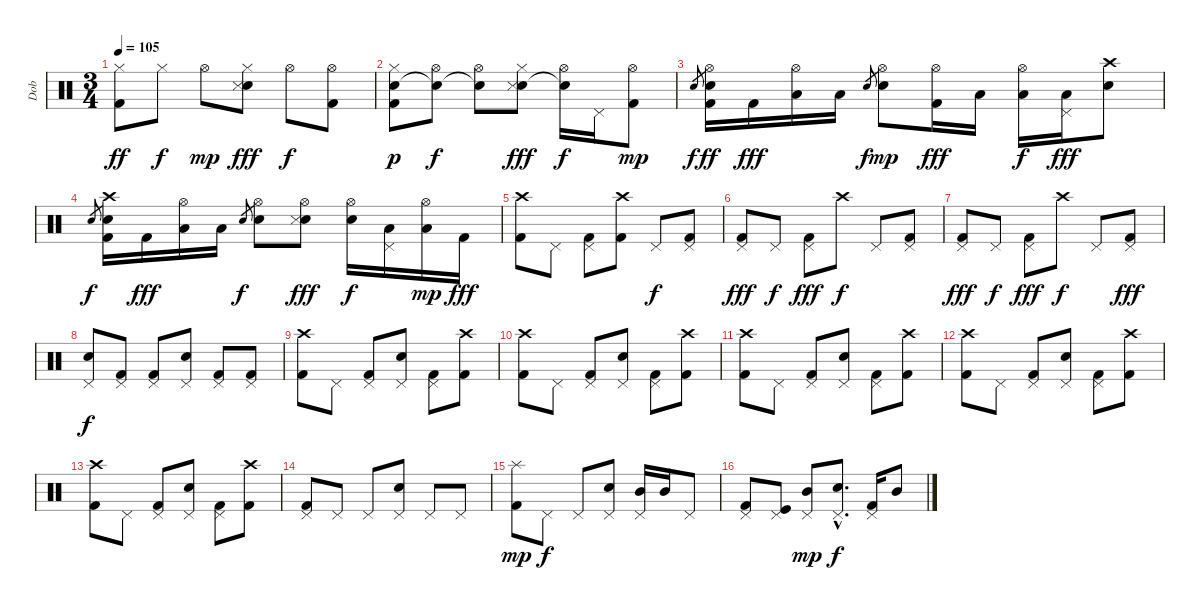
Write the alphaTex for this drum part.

\track ("Dob" "Dob") {instrument percussion}
\staff {score}
\articulation defaults
\ts (3 4)
\tempo 105
\clef neutral
\ks c
("Kick (hit) 2" "Hi-Hat (closed)").8{dy ff} "Hi-Hat (closed)".8{dy f} "Hi-Hat (open)".8{dy mp} ("Electric Snare (hit)" "Snare (side stick) 3" "Hi-Hat (closed)").8{dy fff} "Hi-Hat (open)".8{dy f} ("Kick (hit) 2" "Hi-Hat (open)").8 |
("Electric Snare (hit)"{tr (40 32)} "Kick (hit) 2" "Hi-Hat (closed)").8{dy p} ("Snare (hit)"{t} "Hi-Hat (open)").8{dy f} ("Snare (hit)"{t} "Hi-Hat (open)").8 ("Electric Snare (hit)" "Snare (side stick) 3" "Hi-Hat (closed)").8{dy fff} ("Snare (hit)"{t} "Hi-Hat (open)").16{dy f} "Pedal Hi-Hat (hit)".16 ("Kick (hit) 2" "Hi-Hat (open)").8{dy mp} |
"Electric Snare (hit)".8{gr dy f} ("Electric Snare (hit)" "Kick (hit) 2" "Hi-Hat (open)").16{dy ff} "Kick (hit) 2".16{dy fff} ("Low Tom (hit)" "Hi-Hat (open)").16 "Low Tom (hit)".16 "Electric Snare (hit)".8{gr dy f} ("Electric Snare (hit)" "Hi-Hat (open)").8{dy mp} ("Kick (hit) 2" "Hi-Hat (open)").16{dy fff} "Low Tom (hit)".16 ("Low Tom (hit)" "Hi-Hat (open)").16{dy f} ("Low Tom (hit)" "Pedal Hi-Hat (hit)").16{dy fff} ("Electric Snare (hit)" "Crash high (hit)").8 |
"Electric Snare (hit)".8{gr dy f} ("Electric Snare (hit)" "Kick (hit) 2" "Crash high (hit)").16 "Kick (hit) 2".16{dy fff} ("Low Tom (hit)" "Hi-Hat (open)").16 "Low Tom (hit)".16 "Electric Snare (hit)".8{gr dy f} ("Electric Snare (hit)" "Hi-Hat (open)").8 ("Electric Snare (hit)" "Snare (side stick) 3" "Hi-Hat (open)").8{dy fff} ("Electric Snare (hit)" "Hi-Hat (open)").16{dy f} ("Low Tom (hit)" "Pedal Hi-Hat (hit)").16 ("Low Tom (hit)" "Hi-Hat (open)").16{dy mp} "Kick (hit) 2".16{dy fff} |
("Kick (hit) 2" "Crash high (hit)").8 "Pedal Hi-Hat (hit)".8 ("Kick (hit) 2" "Pedal Hi-Hat (hit)").8 ("Kick (hit) 2" "Crash high (hit)").8 "Pedal Hi-Hat (hit)".8{dy f} ("Kick (hit) 2" "Pedal Hi-Hat (hit)").8 |
("Kick (hit) 2" "Pedal Hi-Hat (hit)").8{dy fff} "Pedal Hi-Hat (hit)".8{dy f} ("Kick (hit) 2" "Pedal Hi-Hat (hit)").8{dy fff} "Crash high (hit)".8{dy f} "Pedal Hi-Hat (hit)".8 ("Kick (hit) 2" "Pedal Hi-Hat (hit)").8 |
("Kick (hit) 2" "Pedal Hi-Hat (hit)").8{dy fff} "Pedal Hi-Hat (hit)".8{dy f} ("Kick (hit) 2" "Pedal Hi-Hat (hit)").8{dy fff} "Crash high (hit)".8{dy f} "Pedal Hi-Hat (hit)".8 ("Kick (hit) 2" "Pedal Hi-Hat (hit)").8{dy fff} |
("Electric Snare (hit)" "Pedal Hi-Hat (hit)").8{dy f} ("Kick (hit) 2" "Pedal Hi-Hat (hit)").8 ("Kick (hit) 2" "Pedal Hi-Hat (hit)").8 ("Electric Snare (hit)" "Pedal Hi-Hat (hit)").8 ("Kick (hit) 2" "Pedal Hi-Hat (hit)").8 ("Kick (hit) 2" "Pedal Hi-Hat (hit)").8 |
("Kick (hit) 2" "Crash high (hit)").8 "Pedal Hi-Hat (hit)".8 ("Kick (hit) 2" "Pedal Hi-Hat (hit)").8 ("Electric Snare (hit)" "Pedal Hi-Hat (hit)").8 ("Kick (hit) 2" "Pedal Hi-Hat (hit)").8 ("Kick (hit) 2" "Crash high (hit)").8 |
("Kick (hit) 2" "Crash high (hit)").8 "Pedal Hi-Hat (hit)".8 ("Kick (hit) 2" "Pedal Hi-Hat (hit)").8 ("Electric Snare (hit)" "Pedal Hi-Hat (hit)").8 ("Kick (hit) 2" "Pedal Hi-Hat (hit)").8 ("Kick (hit) 2" "Crash high (hit)").8 |
("Kick (hit) 2" "Crash high (hit)").8 "Pedal Hi-Hat (hit)".8 ("Kick (hit) 2" "Pedal Hi-Hat (hit)").8 ("Electric Snare (hit)" "Pedal Hi-Hat (hit)").8 ("Kick (hit) 2" "Pedal Hi-Hat (hit)").8 ("Kick (hit) 2" "Crash high (hit)").8 |
("Kick (hit) 2" "Crash high (hit)").8 "Pedal Hi-Hat (hit)".8 ("Kick (hit) 2" "Pedal Hi-Hat (hit)").8 ("Electric Snare (hit)" "Pedal Hi-Hat (hit)").8 ("Kick (hit) 2" "Pedal Hi-Hat (hit)").8 ("Kick (hit) 2" "Crash high (hit)").8 |
("Kick (hit) 2" "Crash high (hit)").8 "Pedal Hi-Hat (hit)".8 ("Kick (hit) 2" "Pedal Hi-Hat (hit)").8 ("Electric Snare (hit)" "Pedal Hi-Hat (hit)").8 ("Kick (hit) 2" "Pedal Hi-Hat (hit)").8 ("Kick (hit) 2" "Crash high (hit)").8 |
("Kick (hit) 2" "Pedal Hi-Hat (hit)").8 "Pedal Hi-Hat (hit)".8 "Pedal Hi-Hat (hit)".8 ("Electric Snare (hit)" "Pedal Hi-Hat (hit)").8 "Pedal Hi-Hat (hit)".8 "Pedal Hi-Hat (hit)".8 |
("Kick (hit) 2" "Splash (hit)").8{dy mp} "Pedal Hi-Hat (hit)".8{dy f} "Pedal Hi-Hat (hit)".8 ("Electric Snare (hit)" "Pedal Hi-Hat (hit)").8 ("Mid Tom (hit)" "Pedal Hi-Hat (hit)").16 "Mid Tom (hit)".16 "Pedal Hi-Hat (hit)".8 |
("Kick (hit) 2" "Pedal Hi-Hat (hit)").8 ("Kick (hit)" "Pedal Hi-Hat (hit)").8 ("Mid Tom (hit)" "Pedal Hi-Hat (hit)").8{dy mp} ("Electric Snare (hit)"{hac} "Pedal Hi-Hat (hit)"{hac}).8{d dy f} ("Kick (hit) 2" "Pedal Hi-Hat (hit)").16 "Mid Tom (hit)".8
